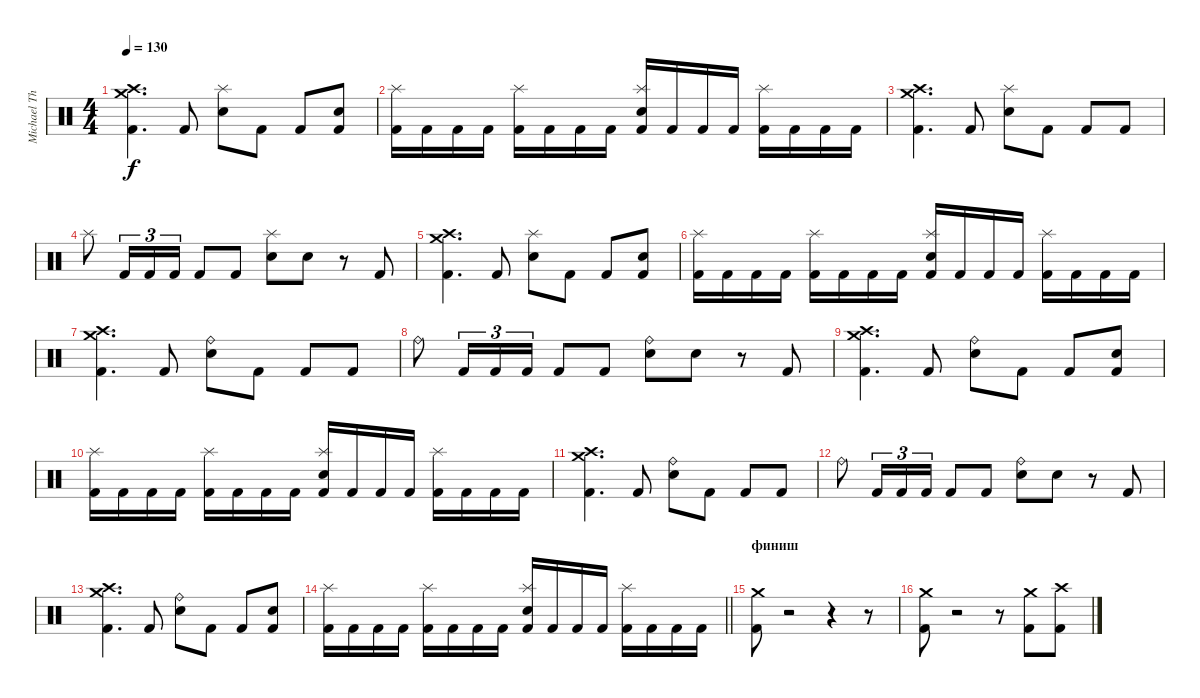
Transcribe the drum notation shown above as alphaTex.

\track ("Michael Thomas" "Michael Th") {instrument percussion}
\staff {score}
\articulation defaults
\ts (4 4)
\tempo 130
\clef neutral
\ks c
("Crash high (hit)" "Crash medium (hit)" "Kick (hit) 2").4{d dy f} "Kick (hit) 2".8 ("Splash (hit)" "Electric Snare (hit)").8 "Kick (hit) 2".8 "Kick (hit) 2".8 ("Electric Snare (hit)" "Kick (hit) 2").8 |
("Splash (hit)" "Kick (hit) 2").16 "Kick (hit) 2".16 "Kick (hit) 2".16 "Kick (hit) 2".16 ("Splash (hit)" "Kick (hit) 2").16 "Kick (hit) 2".16 "Kick (hit) 2".16 "Kick (hit) 2".16 ("Splash (hit)" "Electric Snare (hit)" "Kick (hit) 2").16 "Kick (hit) 2".16 "Kick (hit) 2".16 "Kick (hit) 2".16 ("Splash (hit)" "Kick (hit) 2").16 "Kick (hit) 2".16 "Kick (hit) 2".16 "Kick (hit) 2".16 |
("Crash medium (hit)" "Crash high (hit)" "Kick (hit) 2").4{d} "Kick (hit) 2".8 ("Splash (hit)" "Electric Snare (hit)").8 "Kick (hit) 2".8 "Kick (hit) 2".8 "Kick (hit) 2".8 |
"Splash (hit)".8 "Kick (hit) 2".16{tu (3 2)} "Kick (hit) 2".16{tu (3 2)} "Kick (hit) 2".16{tu (3 2)} "Kick (hit) 2".8 "Kick (hit) 2".8 ("Splash (hit)" "Electric Snare (hit)").8 "Electric Snare (hit)".8 r.8 "Kick (hit) 2".8 |
("Crash high (hit)" "Crash medium (hit)" "Kick (hit) 2").4{d} "Kick (hit) 2".8 ("Splash (hit)" "Electric Snare (hit)").8 "Kick (hit) 2".8 "Kick (hit) 2".8 ("Electric Snare (hit)" "Kick (hit) 2").8 |
("Splash (hit)" "Kick (hit) 2").16 "Kick (hit) 2".16 "Kick (hit) 2".16 "Kick (hit) 2".16 ("Splash (hit)" "Kick (hit) 2").16 "Kick (hit) 2".16 "Kick (hit) 2".16 "Kick (hit) 2".16 ("Splash (hit)" "Electric Snare (hit)" "Kick (hit) 2").16 "Kick (hit) 2".16 "Kick (hit) 2".16 "Kick (hit) 2".16 ("Splash (hit)" "Kick (hit) 2").16 "Kick (hit) 2".16 "Kick (hit) 2".16 "Kick (hit) 2".16 |
("Crash medium (hit)" "Crash high (hit)" "Kick (hit) 2").4{d} "Kick (hit) 2".8 ("Ride (bell)" "Electric Snare (hit)").8 "Kick (hit) 2".8 "Kick (hit) 2".8 "Kick (hit) 2".8 |
"Ride (bell)".8 "Kick (hit) 2".16{tu (3 2)} "Kick (hit) 2".16{tu (3 2)} "Kick (hit) 2".16{tu (3 2)} "Kick (hit) 2".8 "Kick (hit) 2".8 ("Ride (bell)" "Electric Snare (hit)").8 "Electric Snare (hit)".8 r.8 "Kick (hit) 2".8 |
("Crash high (hit)" "Crash medium (hit)" "Kick (hit) 2").4{d} "Kick (hit) 2".8 ("Ride (bell)" "Electric Snare (hit)").8 "Kick (hit) 2".8 "Kick (hit) 2".8 ("Electric Snare (hit)" "Kick (hit) 2").8 |
("Splash (hit)" "Kick (hit) 2").16 "Kick (hit) 2".16 "Kick (hit) 2".16 "Kick (hit) 2".16 ("Splash (hit)" "Kick (hit) 2").16 "Kick (hit) 2".16 "Kick (hit) 2".16 "Kick (hit) 2".16 ("Splash (hit)" "Electric Snare (hit)" "Kick (hit) 2").16 "Kick (hit) 2".16 "Kick (hit) 2".16 "Kick (hit) 2".16 ("Splash (hit)" "Kick (hit) 2").16 "Kick (hit) 2".16 "Kick (hit) 2".16 "Kick (hit) 2".16 |
("Crash medium (hit)" "Crash high (hit)" "Kick (hit) 2").4{d} "Kick (hit) 2".8 ("Ride (bell)" "Electric Snare (hit)").8 "Kick (hit) 2".8 "Kick (hit) 2".8 "Kick (hit) 2".8 |
"Ride (bell)".8 "Kick (hit) 2".16{tu (3 2)} "Kick (hit) 2".16{tu (3 2)} "Kick (hit) 2".16{tu (3 2)} "Kick (hit) 2".8 "Kick (hit) 2".8 ("Ride (bell)" "Electric Snare (hit)").8 "Electric Snare (hit)".8 r.8 "Kick (hit) 2".8 |
("Crash high (hit)" "Crash medium (hit)" "Kick (hit) 2").4{d} "Kick (hit) 2".8 ("Ride (bell)" "Electric Snare (hit)").8 "Kick (hit) 2".8 "Kick (hit) 2".8 ("Electric Snare (hit)" "Kick (hit) 2").8 |
\barLineRight lightlight
("Splash (hit)" "Kick (hit) 2").16 "Kick (hit) 2".16 "Kick (hit) 2".16 "Kick (hit) 2".16 ("Splash (hit)" "Kick (hit) 2").16 "Kick (hit) 2".16 "Kick (hit) 2".16 "Kick (hit) 2".16 ("Splash (hit)" "Electric Snare (hit)" "Kick (hit) 2").16 "Kick (hit) 2".16 "Kick (hit) 2".16 "Kick (hit) 2".16 ("Splash (hit)" "Kick (hit) 2").16 "Kick (hit) 2".16 "Kick (hit) 2".16 "Kick (hit) 2".16 |
\section ("" "финиш")
("Crash medium (hit)" "Kick (hit) 2").8 r.2 r.4 r.8 |
("Crash medium (hit)" "Kick (hit) 2").8 r.2 r.8 ("Crash medium (hit)" "Kick (hit) 2").8 ("Crash high (hit)" "Kick (hit) 2").8
